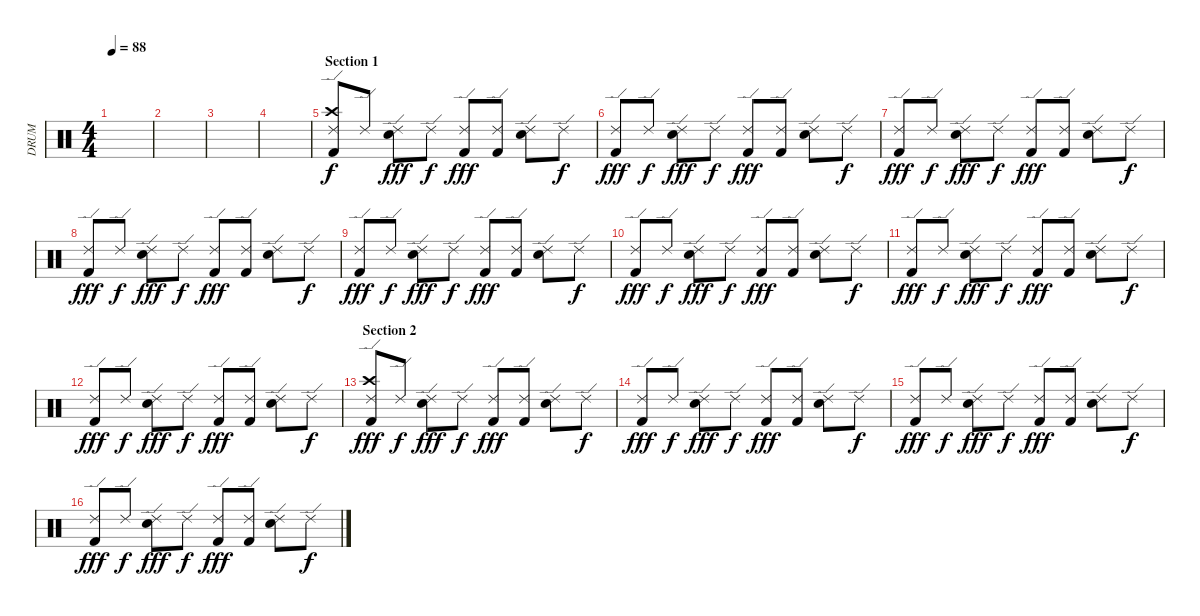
\track ("DRUM" "DRUM") {instrument percussion}
\staff {score}
\articulation defaults
\ts (4 4)
\tempo 88
\clef neutral
\ks c
|
|
|
|
\section ("" "Section 1")
("Ride (edge) 2" "Crash high (hit)" "Kick (hit) 2").8 "Ride (edge) 2".8{dy f} ("Ride (edge) 2" "Snare (hit) 2").8{dy fff} "Ride (edge) 2".8{dy f} ("Ride (edge) 2" "Kick (hit) 2").8{dy fff} ("Ride (edge) 2" "Kick (hit) 2").8 ("Ride (edge) 2" "Snare (hit) 2").8 "Ride (edge) 2".8{dy f} |
("Ride (edge) 2" "Kick (hit) 2").8{dy fff} "Ride (edge) 2".8{dy f} ("Ride (edge) 2" "Snare (hit) 2").8{dy fff} "Ride (edge) 2".8{dy f} ("Ride (edge) 2" "Kick (hit) 2").8{dy fff} ("Ride (edge) 2" "Kick (hit) 2").8 ("Ride (edge) 2" "Snare (hit) 2").8 "Ride (edge) 2".8{dy f} |
("Ride (edge) 2" "Kick (hit) 2").8{dy fff} "Ride (edge) 2".8{dy f} ("Ride (edge) 2" "Snare (hit) 2").8{dy fff} "Ride (edge) 2".8{dy f} ("Ride (edge) 2" "Kick (hit) 2").8{dy fff} ("Ride (edge) 2" "Kick (hit) 2").8 ("Ride (edge) 2" "Snare (hit) 2").8 "Ride (edge) 2".8{dy f} |
("Ride (edge) 2" "Kick (hit) 2").8{dy fff} "Ride (edge) 2".8{dy f} ("Ride (edge) 2" "Snare (hit) 2").8{dy fff} "Ride (edge) 2".8{dy f} ("Ride (edge) 2" "Kick (hit) 2").8{dy fff} ("Ride (edge) 2" "Kick (hit) 2").8 ("Ride (edge) 2" "Snare (hit) 2").8 "Ride (edge) 2".8{dy f} |
("Ride (edge) 2" "Kick (hit) 2").8{dy fff} "Ride (edge) 2".8{dy f} ("Ride (edge) 2" "Snare (hit) 2").8{dy fff} "Ride (edge) 2".8{dy f} ("Ride (edge) 2" "Kick (hit) 2").8{dy fff} ("Ride (edge) 2" "Kick (hit) 2").8 ("Ride (edge) 2" "Snare (hit) 2").8 "Ride (edge) 2".8{dy f} |
("Ride (edge) 2" "Kick (hit) 2").8{dy fff} "Ride (edge) 2".8{dy f} ("Ride (edge) 2" "Snare (hit) 2").8{dy fff} "Ride (edge) 2".8{dy f} ("Ride (edge) 2" "Kick (hit) 2").8{dy fff} ("Ride (edge) 2" "Kick (hit) 2").8 ("Ride (edge) 2" "Snare (hit) 2").8 "Ride (edge) 2".8{dy f} |
("Ride (edge) 2" "Kick (hit) 2").8{dy fff} "Ride (edge) 2".8{dy f} ("Ride (edge) 2" "Snare (hit) 2").8{dy fff} "Ride (edge) 2".8{dy f} ("Ride (edge) 2" "Kick (hit) 2").8{dy fff} ("Ride (edge) 2" "Kick (hit) 2").8 ("Ride (edge) 2" "Snare (hit) 2").8 "Ride (edge) 2".8{dy f} |
("Ride (edge) 2" "Kick (hit) 2").8{dy fff} "Ride (edge) 2".8{dy f} ("Ride (edge) 2" "Snare (hit) 2").8{dy fff} "Ride (edge) 2".8{dy f} ("Ride (edge) 2" "Kick (hit) 2").8{dy fff} ("Ride (edge) 2" "Kick (hit) 2").8 ("Ride (edge) 2" "Snare (hit) 2").8 "Ride (edge) 2".8{dy f} |
\section ("" "Section 2")
("Ride (edge) 2" "Crash high (hit)" "Kick (hit) 2").8{dy fff} "Ride (edge) 2".8{dy f} ("Ride (edge) 2" "Snare (hit) 2").8{dy fff} "Ride (edge) 2".8{dy f} ("Ride (edge) 2" "Kick (hit) 2").8{dy fff} ("Ride (edge) 2" "Kick (hit) 2").8 ("Ride (edge) 2" "Snare (hit) 2").8 "Ride (edge) 2".8{dy f} |
("Ride (edge) 2" "Kick (hit) 2").8{dy fff} "Ride (edge) 2".8{dy f} ("Ride (edge) 2" "Snare (hit) 2").8{dy fff} "Ride (edge) 2".8{dy f} ("Ride (edge) 2" "Kick (hit) 2").8{dy fff} ("Ride (edge) 2" "Kick (hit) 2").8 ("Ride (edge) 2" "Snare (hit) 2").8 "Ride (edge) 2".8{dy f} |
("Ride (edge) 2" "Kick (hit) 2").8{dy fff} "Ride (edge) 2".8{dy f} ("Ride (edge) 2" "Snare (hit) 2").8{dy fff} "Ride (edge) 2".8{dy f} ("Ride (edge) 2" "Kick (hit) 2").8{dy fff} ("Ride (edge) 2" "Kick (hit) 2").8 ("Ride (edge) 2" "Snare (hit) 2").8 "Ride (edge) 2".8{dy f} |
("Ride (edge) 2" "Kick (hit) 2").8{dy fff} "Ride (edge) 2".8{dy f} ("Ride (edge) 2" "Snare (hit) 2").8{dy fff} "Ride (edge) 2".8{dy f} ("Ride (edge) 2" "Kick (hit) 2").8{dy fff} ("Ride (edge) 2" "Kick (hit) 2").8 ("Ride (edge) 2" "Snare (hit) 2").8 "Ride (edge) 2".8{dy f}
